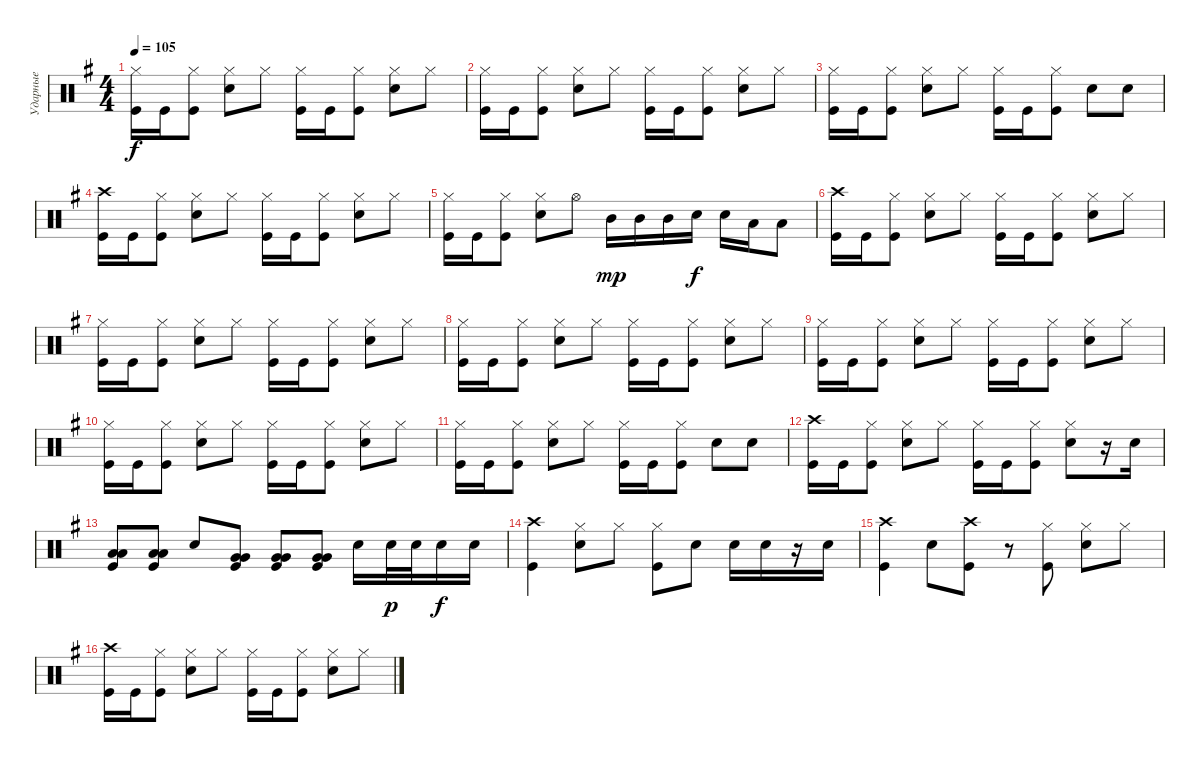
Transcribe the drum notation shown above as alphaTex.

\track ("Ударные" "Ударные") {instrument percussion}
\staff {score}
\articulation defaults
\ts (4 4)
\tempo 105
\clef neutral
\ks eminor
("Kick (hit)" "Hi-Hat (closed)").16{dy f} "Kick (hit)".16 ("Kick (hit)" "Hi-Hat (closed)").8 ("Snare (hit) 2" "Hi-Hat (closed)").8 "Hi-Hat (closed)".8 ("Kick (hit)" "Hi-Hat (closed)").16 "Kick (hit)".16 ("Kick (hit)" "Hi-Hat (closed)").8 ("Snare (hit) 2" "Hi-Hat (closed)").8 "Hi-Hat (closed)".8 |
("Kick (hit)" "Hi-Hat (closed)").16 "Kick (hit)".16 ("Kick (hit)" "Hi-Hat (closed)").8 ("Snare (hit) 2" "Hi-Hat (closed)").8 "Hi-Hat (closed)".8 ("Kick (hit)" "Hi-Hat (closed)").16 "Kick (hit)".16 ("Kick (hit)" "Hi-Hat (closed)").8 ("Snare (hit) 2" "Hi-Hat (closed)").8 "Hi-Hat (closed)".8 |
("Kick (hit)" "Hi-Hat (closed)").16 "Kick (hit)".16 ("Kick (hit)" "Hi-Hat (closed)").8 ("Snare (hit) 2" "Hi-Hat (closed)").8 "Hi-Hat (closed)".8 ("Kick (hit)" "Hi-Hat (closed)").16 "Kick (hit)".16 ("Kick (hit)" "Hi-Hat (closed)").8 "Snare (hit) 2".8 "Snare (hit) 2".8 |
("Kick (hit)" "Crash high (hit)").16 "Kick (hit)".16 ("Kick (hit)" "Hi-Hat (closed)").8 ("Snare (hit) 2" "Hi-Hat (closed)").8 "Hi-Hat (closed)".8 ("Kick (hit)" "Hi-Hat (closed)").16 "Kick (hit)".16 ("Kick (hit)" "Hi-Hat (closed)").8 ("Snare (hit) 2" "Hi-Hat (closed)").8 "Hi-Hat (closed)".8 |
("Kick (hit)" "Hi-Hat (closed)").16 "Kick (hit)".16 ("Kick (hit)" "Hi-Hat (closed)").8 ("Snare (hit) 2" "Hi-Hat (closed)").8 "Hi-Hat (open)".8 "Mid Tom (hit)".16{dy mp} "Mid Tom (hit)".16 "Mid Tom (hit)".16 "Snare (hit) 2".16{dy f} "Snare (hit) 2".16 "Low Tom (hit)".16 "Low Tom (hit)".8 |
("Kick (hit)" "Crash high (hit)").16 "Kick (hit)".16 ("Kick (hit)" "Hi-Hat (closed)").8 ("Snare (hit) 2" "Hi-Hat (closed)").8 "Hi-Hat (closed)".8 ("Kick (hit)" "Hi-Hat (closed)").16 "Kick (hit)".16 ("Kick (hit)" "Hi-Hat (closed)").8 ("Snare (hit) 2" "Hi-Hat (closed)").8 "Hi-Hat (closed)".8 |
("Kick (hit)" "Hi-Hat (closed)").16 "Kick (hit)".16 ("Kick (hit)" "Hi-Hat (closed)").8 ("Snare (hit) 2" "Hi-Hat (closed)").8 "Hi-Hat (closed)".8 ("Kick (hit)" "Hi-Hat (closed)").16 "Kick (hit)".16 ("Kick (hit)" "Hi-Hat (closed)").8 ("Snare (hit) 2" "Hi-Hat (closed)").8 "Hi-Hat (closed)".8 |
("Kick (hit)" "Hi-Hat (closed)").16 "Kick (hit)".16 ("Kick (hit)" "Hi-Hat (closed)").8 ("Snare (hit) 2" "Hi-Hat (closed)").8 "Hi-Hat (closed)".8 ("Kick (hit)" "Hi-Hat (closed)").16 "Kick (hit)".16 ("Kick (hit)" "Hi-Hat (closed)").8 ("Snare (hit) 2" "Hi-Hat (closed)").8 "Hi-Hat (closed)".8 |
("Kick (hit)" "Hi-Hat (closed)").16 "Kick (hit)".16 ("Kick (hit)" "Hi-Hat (closed)").8 ("Snare (hit) 2" "Hi-Hat (closed)").8 "Hi-Hat (closed)".8 ("Kick (hit)" "Hi-Hat (closed)").16 "Kick (hit)".16 ("Kick (hit)" "Hi-Hat (closed)").8 ("Snare (hit) 2" "Hi-Hat (closed)").8 "Hi-Hat (closed)".8 |
("Kick (hit)" "Hi-Hat (closed)").16 "Kick (hit)".16 ("Kick (hit)" "Hi-Hat (closed)").8 ("Snare (hit) 2" "Hi-Hat (closed)").8 "Hi-Hat (closed)".8 ("Kick (hit)" "Hi-Hat (closed)").16 "Kick (hit)".16 ("Kick (hit)" "Hi-Hat (closed)").8 ("Snare (hit) 2" "Hi-Hat (closed)").8 "Hi-Hat (closed)".8 |
("Kick (hit)" "Hi-Hat (closed)").16 "Kick (hit)".16 ("Kick (hit)" "Hi-Hat (closed)").8 ("Snare (hit) 2" "Hi-Hat (closed)").8 "Hi-Hat (closed)".8 ("Kick (hit)" "Hi-Hat (closed)").16 "Kick (hit)".16 ("Kick (hit)" "Hi-Hat (closed)").8 "Snare (hit) 2".8 "Snare (hit) 2".8 |
("Kick (hit)" "Crash high (hit)").16 "Kick (hit)".16 ("Kick (hit)" "Hi-Hat (closed)").8 ("Snare (hit) 2" "Hi-Hat (closed)").8 "Hi-Hat (closed)".8 ("Kick (hit)" "Hi-Hat (closed)").16 "Kick (hit)".16 ("Kick (hit)" "Hi-Hat (closed)").8 ("Snare (hit) 2" "Hi-Hat (closed)").8 r.16 "Snare (hit) 2".16 |
("Kick (hit)" "Low Tom (hit)" "Low Tom (hit)").8{bd 60} ("Low Tom (hit)" "Low Tom (hit)" "Kick (hit)").8{bd 60} "Snare (hit) 2".8 ("Kick (hit)" "Very Low Tom (hit)" "Very Low Tom (hit)").8{bd 60} ("Kick (hit)" "Very Low Tom (hit)" "Very Low Tom (hit)").8{bd 60} ("Kick (hit)" "Very Low Tom (hit)" "Very Low Tom (hit)").8{bd 60} "Snare (hit) 2".16 "Snare (hit) 2".32{dy p} "Snare (hit) 2".32 "Snare (hit) 2".16{dy f} "Snare (hit) 2".16 |
("Kick (hit)" "Crash high (hit)").4 ("Snare (hit) 2" "Hi-Hat (closed)").8 "Hi-Hat (closed)".8 ("Hi-Hat (closed)" "Kick (hit)").8 "Snare (hit) 2".8 "Snare (hit) 2".16 "Snare (hit) 2".16 r.16 "Snare (hit) 2".16 |
("Kick (hit)" "Crash high (hit)").4 "Snare (hit) 2".8 ("Kick (hit)" "Crash high (hit)").8 r.8 ("Kick (hit)" "Hi-Hat (closed)").8 ("Snare (hit) 2" "Hi-Hat (closed)").8 "Hi-Hat (closed)".8 |
("Kick (hit)" "Crash high (hit)").16 "Kick (hit)".16 ("Kick (hit)" "Hi-Hat (closed)").8 ("Snare (hit) 2" "Hi-Hat (closed)").8 "Hi-Hat (closed)".8 ("Kick (hit)" "Hi-Hat (closed)").16 "Kick (hit)".16 ("Kick (hit)" "Hi-Hat (closed)").8 ("Snare (hit) 2" "Hi-Hat (closed)").8 "Hi-Hat (closed)".8
